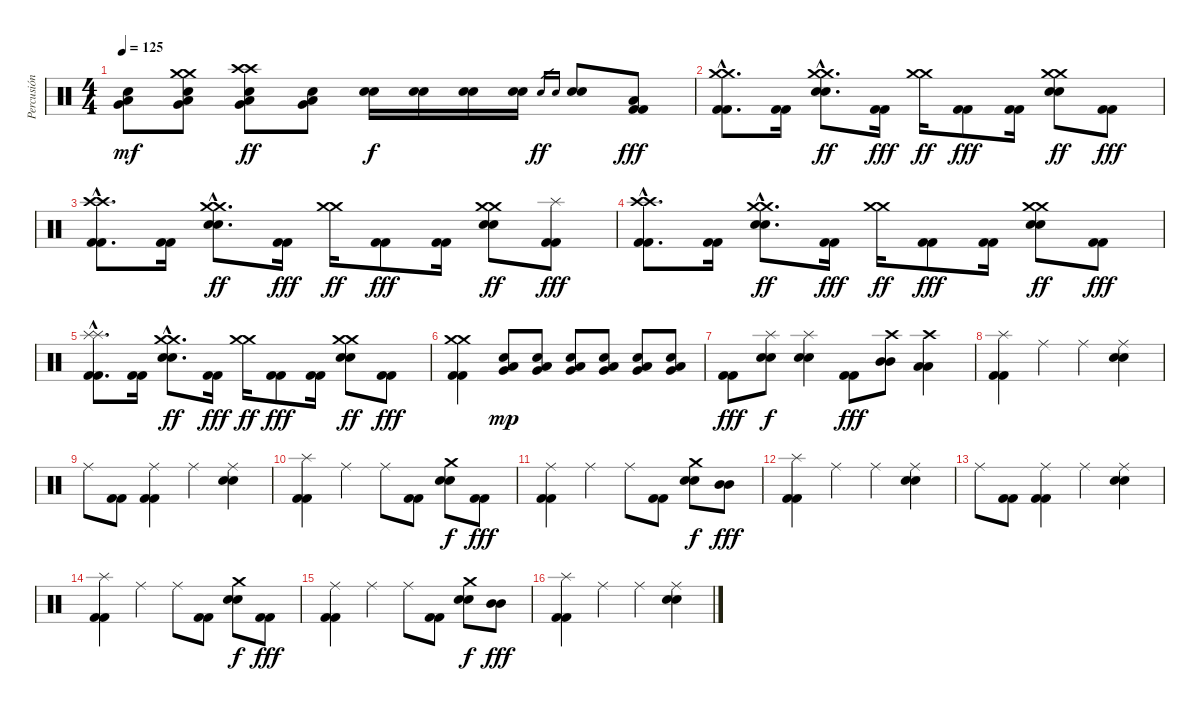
\track ("Percusión" "Percusión") {instrument percussion}
\staff {score}
\articulation defaults
\ts (4 4)
\tempo 125
\clef neutral
\ks c
("Electric Snare (hit)" "Low Tom (hit)" "Very Low Tom (hit)").8{dy mf} ("Crash medium (hit)" "Crash medium (hit)" "Electric Snare (hit)" "Low Tom (hit)" "Very Low Tom (hit)").8 ("Crash high (hit)" "Crash high (hit)" "Electric Snare (hit)" "Low Tom (hit)" "Very Low Tom (hit)").8{dy ff} ("Electric Snare (hit)" "Low Tom (hit)" "Very Low Tom (hit)").8 ("Electric Snare (hit)" "Electric Snare (hit)").16{dy f} ("Electric Snare (hit)" "Electric Snare (hit)").16 ("Electric Snare (hit)" "Electric Snare (hit)").16 ("Electric Snare (hit)" "Electric Snare (hit)").16 "Electric Snare (hit)".16{gr dy ff} "Electric Snare (hit)".16{gr} ("Electric Snare (hit)" "Electric Snare (hit)").8 ("Low Tom (hit)" "Kick (hit) 2" "Kick (hit) 2").8{dy fff} |
("Crash medium (hit)"{hac} "Crash medium (hit)"{hac} "Kick (hit) 2"{hac} "Kick (hit) 2"{hac}).8{d} ("Kick (hit) 2" "Kick (hit) 2").16 ("Crash medium (hit)"{hac} "Crash medium (hit)"{hac} "Electric Snare (hit)"{hac} "Electric Snare (hit)"{hac}).8{d dy ff} ("Kick (hit) 2" "Kick (hit) 2").16{dy fff} ("Crash medium (hit)" "Crash medium (hit)").16{dy ff} ("Kick (hit) 2" "Kick (hit) 2").8{dy fff} ("Kick (hit) 2" "Kick (hit) 2").16 ("Crash medium (hit)" "Crash medium (hit)" "Electric Snare (hit)" "Electric Snare (hit)").8{dy ff} ("Kick (hit) 2" "Kick (hit) 2").8{dy fff} |
("Crash high (hit)"{hac} "Crash high (hit)"{hac} "Kick (hit) 2"{hac} "Kick (hit) 2"{hac}).8{d} ("Kick (hit) 2" "Kick (hit) 2").16 ("Crash medium (hit)"{hac} "Crash medium (hit)"{hac} "Electric Snare (hit)"{hac} "Electric Snare (hit)"{hac}).8{d dy ff} ("Kick (hit) 2" "Kick (hit) 2").16{dy fff} ("Crash medium (hit)" "Crash medium (hit)").16{dy ff} ("Kick (hit) 2" "Kick (hit) 2").8{dy fff} ("Kick (hit) 2" "Kick (hit) 2").16 ("Crash medium (hit)" "Crash medium (hit)" "Electric Snare (hit)" "Electric Snare (hit)").8{dy ff} ("Splash (hit)" "Kick (hit) 2" "Kick (hit) 2").8{dy fff} |
("Crash high (hit)"{hac} "Crash high (hit)"{hac} "Kick (hit) 2"{hac} "Kick (hit) 2"{hac}).8{d} ("Kick (hit) 2" "Kick (hit) 2").16 ("Crash medium (hit)"{hac} "Crash medium (hit)"{hac} "Electric Snare (hit)"{hac} "Electric Snare (hit)"{hac}).8{d dy ff} ("Kick (hit) 2" "Kick (hit) 2").16{dy fff} ("Crash medium (hit)" "Crash medium (hit)").16{dy ff} ("Kick (hit) 2" "Kick (hit) 2").8{dy fff} ("Kick (hit) 2" "Kick (hit) 2").16 ("Crash medium (hit)" "Crash medium (hit)" "Electric Snare (hit)" "Electric Snare (hit)").8{dy ff} ("Kick (hit) 2" "Kick (hit) 2").8{dy fff} |
("Splash (hit)"{hac} "Splash (hit)"{hac} "Kick (hit) 2"{hac} "Kick (hit) 2"{hac}).8{d} ("Kick (hit) 2" "Kick (hit) 2").16 ("Crash medium (hit)"{hac} "Crash medium (hit)"{hac} "Electric Snare (hit)"{hac} "Electric Snare (hit)"{hac}).8{d dy ff} ("Kick (hit) 2" "Kick (hit) 2").16{dy fff} ("Crash medium (hit)" "Crash medium (hit)").16{dy ff} ("Kick (hit) 2" "Kick (hit) 2").8{dy fff} ("Kick (hit) 2" "Kick (hit) 2").16 ("Crash medium (hit)" "Crash medium (hit)" "Electric Snare (hit)" "Electric Snare (hit)").8{dy ff} ("Kick (hit) 2" "Kick (hit) 2").8{dy fff} |
("Crash medium (hit)" "Crash medium (hit)" "Kick (hit) 2" "Kick (hit) 2").4 ("Electric Snare (hit)" "Low Tom (hit)" "Very Low Tom (hit)").8{dy mp} ("Electric Snare (hit)" "Low Tom (hit)" "Very Low Tom (hit)").8 ("Electric Snare (hit)" "Low Tom (hit)" "Very Low Tom (hit)").8 ("Electric Snare (hit)" "Low Tom (hit)" "Very Low Tom (hit)").8 ("Electric Snare (hit)" "Low Tom (hit)" "Very Low Tom (hit)").8 ("Electric Snare (hit)" "Low Tom (hit)" "Very Low Tom (hit)").8 |
("Kick (hit) 2" "Kick (hit) 2").8{dy fff} ("Splash (hit)" "Electric Snare (hit)" "Electric Snare (hit)").8{dy f} ("Splash (hit)" "Electric Snare (hit)" "Electric Snare (hit)").4 ("Kick (hit) 2" "Kick (hit) 2").8{dy fff} ("Crash high (hit)" "Mid Tom (hit)" "Mid Tom (hit)").8 ("Crash high (hit)" "Low Tom (hit)" "Low Tom (hit)").4 |
("Splash (hit)" "Kick (hit) 2" "Kick (hit) 2").4 "Ride (middle)".4 "Ride (middle)".4 ("Ride (middle)" "Electric Snare (hit)" "Electric Snare (hit)").4 |
"Ride (middle)".8 ("Kick (hit) 2" "Kick (hit) 2").8 ("Ride (middle)" "Kick (hit) 2" "Kick (hit) 2").4 "Ride (middle)".4 ("Ride (middle)" "Electric Snare (hit)" "Electric Snare (hit)").4 |
("Splash (hit)" "Kick (hit) 2" "Kick (hit) 2").4 "Ride (middle)".4 "Ride (middle)".8 ("Kick (hit) 2" "Kick (hit) 2").8 ("Crash medium (hit)" "Electric Snare (hit)" "Electric Snare (hit)").8{dy f} ("Kick (hit) 2" "Kick (hit) 2").8{dy fff} |
("Ride (middle)" "Kick (hit) 2" "Kick (hit) 2").4 "Ride (middle)".4 "Ride (middle)".8 ("Kick (hit) 2" "Kick (hit) 2").8 ("Crash medium (hit)" "Electric Snare (hit)" "Electric Snare (hit)").8{dy f} ("Mid Tom (hit)" "Mid Tom (hit)").8{dy fff} |
("Splash (hit)" "Kick (hit) 2" "Kick (hit) 2").4 "Ride (middle)".4 "Ride (middle)".4 ("Ride (middle)" "Electric Snare (hit)" "Electric Snare (hit)").4 |
"Ride (middle)".8 ("Kick (hit) 2" "Kick (hit) 2").8 ("Ride (middle)" "Kick (hit) 2" "Kick (hit) 2").4 "Ride (middle)".4 ("Ride (middle)" "Electric Snare (hit)" "Electric Snare (hit)").4 |
("Splash (hit)" "Kick (hit) 2" "Kick (hit) 2").4 "Ride (middle)".4 "Ride (middle)".8 ("Kick (hit) 2" "Kick (hit) 2").8 ("Crash medium (hit)" "Electric Snare (hit)" "Electric Snare (hit)").8{dy f} ("Kick (hit) 2" "Kick (hit) 2").8{dy fff} |
("Ride (middle)" "Kick (hit) 2" "Kick (hit) 2").4 "Ride (middle)".4 "Ride (middle)".8 ("Kick (hit) 2" "Kick (hit) 2").8 ("Crash medium (hit)" "Electric Snare (hit)" "Electric Snare (hit)").8{dy f} ("Mid Tom (hit)" "Mid Tom (hit)").8{dy fff} |
("Splash (hit)" "Kick (hit) 2" "Kick (hit) 2").4 "Ride (middle)".4 "Ride (middle)".4 ("Ride (middle)" "Electric Snare (hit)" "Electric Snare (hit)").4
